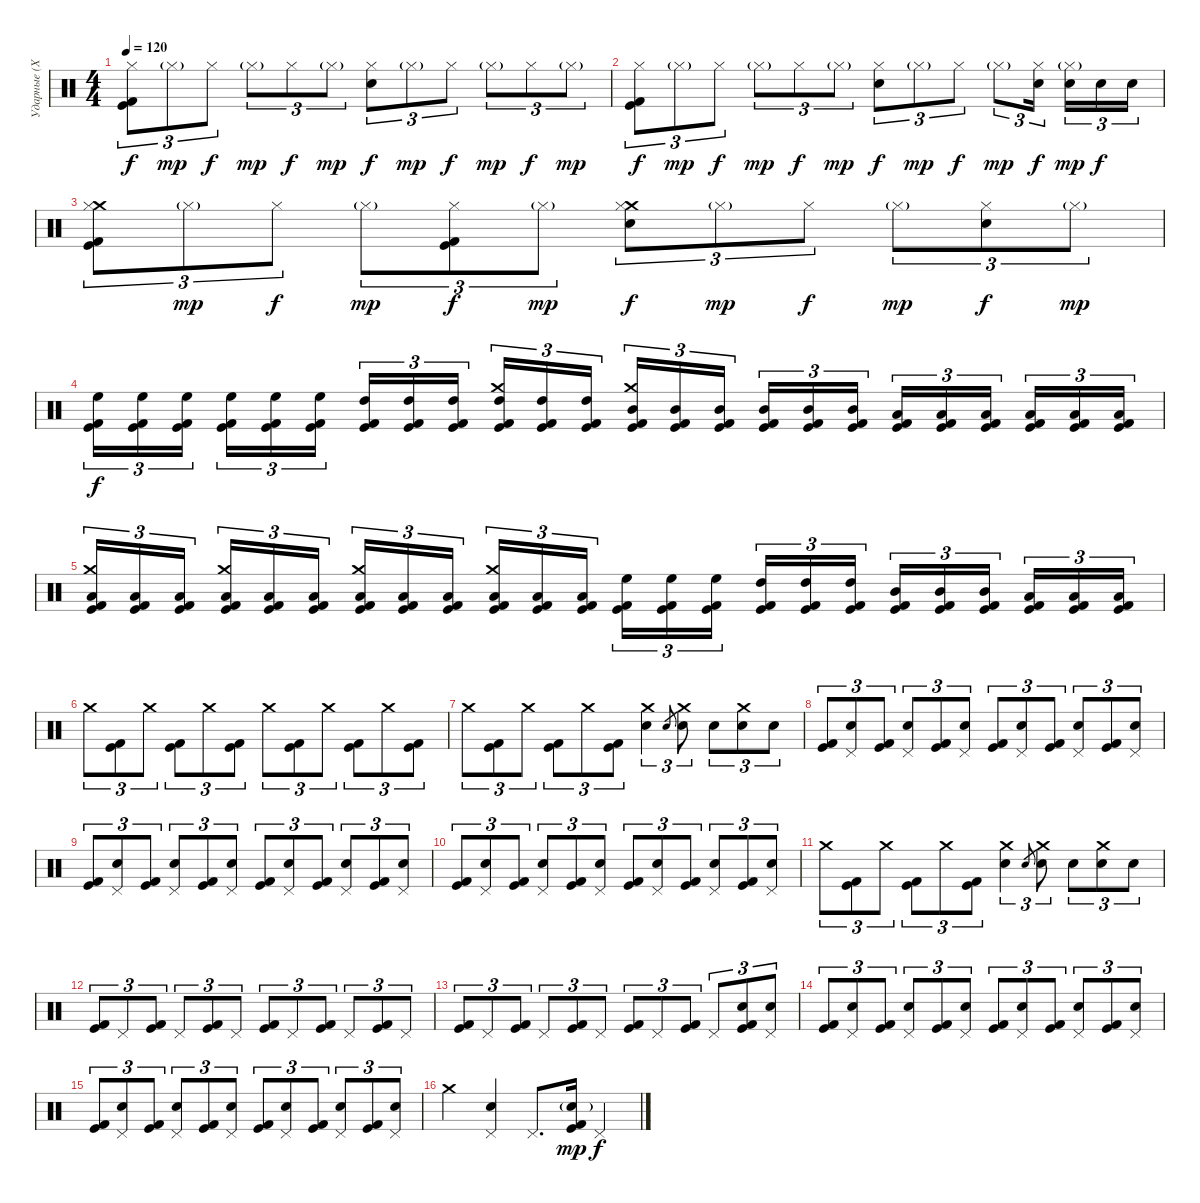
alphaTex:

\track ("Ударные (Хеллхаммер)" "Ударные (Х") {instrument percussion}
\staff {score}
\articulation defaults
\ts (4 4)
\tempo 120
\clef neutral
\ks c
("Hi-Hat (closed)" "Kick (hit) 2" "Kick (hit)").8{tu (3 2) dy f} "Hi-Hat (closed)"{g}.8{tu (3 2) dy mp} "Hi-Hat (closed)".8{tu (3 2) dy f} "Hi-Hat (closed)"{g}.8{tu (3 2) dy mp} "Hi-Hat (closed)".8{tu (3 2) dy f} "Hi-Hat (closed)"{g}.8{tu (3 2) dy mp} ("Electric Snare (hit)" "Hi-Hat (closed)").8{tu (3 2) dy f} "Hi-Hat (closed)"{g}.8{tu (3 2) dy mp} "Hi-Hat (closed)".8{tu (3 2) dy f} "Hi-Hat (closed)"{g}.8{tu (3 2) dy mp} "Hi-Hat (closed)".8{tu (3 2) dy f} "Hi-Hat (closed)"{g}.8{tu (3 2) dy mp} |
("Hi-Hat (closed)" "Kick (hit) 2" "Kick (hit)").8{tu (3 2) dy f} "Hi-Hat (closed)"{g}.8{tu (3 2) dy mp} "Hi-Hat (closed)".8{tu (3 2) dy f} "Hi-Hat (closed)"{g}.8{tu (3 2) dy mp} "Hi-Hat (closed)".8{tu (3 2) dy f} "Hi-Hat (closed)"{g}.8{tu (3 2) dy mp} ("Electric Snare (hit)" "Hi-Hat (closed)").8{tu (3 2) dy f} "Hi-Hat (closed)"{g}.8{tu (3 2) dy mp} "Hi-Hat (closed)".8{tu (3 2) dy f} "Hi-Hat (closed)"{g}.8{tu (3 2) dy mp} ("Electric Snare (hit)" "Hi-Hat (closed)").16{tu (3 2) dy f beam splitsecondary} ("Electric Snare (hit)" "Hi-Hat (closed)"{g}).16{tu (3 2) dy mp} "Electric Snare (hit)".16{tu (3 2) dy f} "Electric Snare (hit)".16{tu (3 2)} |
("Crash medium (hit)" "Hi-Hat (closed)" "Kick (hit) 2" "Kick (hit)").8{tu (3 2)} "Hi-Hat (closed)"{g}.8{tu (3 2) dy mp} "Hi-Hat (closed)".8{tu (3 2) dy f} "Hi-Hat (closed)"{g}.8{tu (3 2) dy mp} ("Hi-Hat (closed)" "Kick (hit) 2" "Kick (hit)").8{tu (3 2) dy f} "Hi-Hat (closed)"{g}.8{tu (3 2) dy mp} ("Crash medium (hit)" "Electric Snare (hit)" "Hi-Hat (closed)").8{tu (3 2) dy f} "Hi-Hat (closed)"{g}.8{tu (3 2) dy mp} "Hi-Hat (closed)".8{tu (3 2) dy f} "Hi-Hat (closed)"{g}.8{tu (3 2) dy mp} ("Electric Snare (hit)" "Hi-Hat (closed)").8{tu (3 2) dy f} "Hi-Hat (closed)"{g}.8{tu (3 2) dy mp} |
("High Floor Tom (hit)" "Kick (hit) 2" "Kick (hit)").16{tu (3 2) dy f} ("High Floor Tom (hit)" "Kick (hit) 2" "Kick (hit)").16{tu (3 2)} ("High Floor Tom (hit)" "Kick (hit) 2" "Kick (hit)").16{tu (3 2) beam splitsecondary} ("High Floor Tom (hit)" "Kick (hit) 2" "Kick (hit)").16{tu (3 2)} ("High Floor Tom (hit)" "Kick (hit) 2" "Kick (hit)").16{tu (3 2)} ("High Floor Tom (hit)" "Kick (hit) 2" "Kick (hit)").16{tu (3 2)} ("High Tom (hit)" "Kick (hit) 2" "Kick (hit)").16{tu (3 2)} ("High Tom (hit)" "Kick (hit) 2" "Kick (hit)").16{tu (3 2)} ("High Tom (hit)" "Kick (hit) 2" "Kick (hit)").16{tu (3 2) beam splitsecondary} ("High Tom (hit)" "Crash medium (hit)" "Kick (hit) 2" "Kick (hit)").16{tu (3 2)} ("High Tom (hit)" "Kick (hit) 2" "Kick (hit)").16{tu (3 2)} ("High Tom (hit)" "Kick (hit) 2" "Kick (hit)").16{tu (3 2)} ("Mid Tom (hit)" "Crash medium (hit)" "Kick (hit) 2" "Kick (hit)").16{tu (3 2)} ("Mid Tom (hit)" "Kick (hit) 2" "Kick (hit)").16{tu (3 2)} ("Mid Tom (hit)" "Kick (hit) 2" "Kick (hit)").16{tu (3 2) beam splitsecondary} ("Mid Tom (hit)" "Kick (hit) 2" "Kick (hit)").16{tu (3 2)} ("Mid Tom (hit)" "Kick (hit) 2" "Kick (hit)").16{tu (3 2)} ("Mid Tom (hit)" "Kick (hit) 2" "Kick (hit)").16{tu (3 2)} ("Low Tom (hit)" "Kick (hit) 2" "Kick (hit)").16{tu (3 2)} ("Low Tom (hit)" "Kick (hit) 2" "Kick (hit)").16{tu (3 2)} ("Low Tom (hit)" "Kick (hit) 2" "Kick (hit)").16{tu (3 2) beam splitsecondary} ("Low Tom (hit)" "Kick (hit) 2" "Kick (hit)").16{tu (3 2)} ("Low Tom (hit)" "Kick (hit) 2" "Kick (hit)").16{tu (3 2)} ("Low Tom (hit)" "Kick (hit) 2" "Kick (hit)").16{tu (3 2)} |
("Low Tom (hit)" "Crash medium (hit)" "Kick (hit) 2" "Kick (hit)").16{tu (3 2)} ("Low Tom (hit)" "Kick (hit) 2" "Kick (hit)").16{tu (3 2)} ("Low Tom (hit)" "Kick (hit) 2" "Kick (hit)").16{tu (3 2) beam splitsecondary} ("Low Tom (hit)" "Crash medium (hit)" "Kick (hit) 2" "Kick (hit)").16{tu (3 2)} ("Low Tom (hit)" "Kick (hit) 2" "Kick (hit)").16{tu (3 2)} ("Low Tom (hit)" "Kick (hit) 2" "Kick (hit)").16{tu (3 2)} ("Low Tom (hit)" "Crash medium (hit)" "Kick (hit) 2" "Kick (hit)").16{tu (3 2)} ("Low Tom (hit)" "Kick (hit) 2" "Kick (hit)").16{tu (3 2)} ("Low Tom (hit)" "Kick (hit) 2" "Kick (hit)").16{tu (3 2) beam splitsecondary} ("Low Tom (hit)" "Crash medium (hit)" "Kick (hit) 2" "Kick (hit)").16{tu (3 2)} ("Low Tom (hit)" "Kick (hit) 2" "Kick (hit)").16{tu (3 2)} ("Low Tom (hit)" "Kick (hit) 2" "Kick (hit)").16{tu (3 2)} ("High Floor Tom (hit)" "Kick (hit) 2" "Kick (hit)").16{tu (3 2)} ("High Floor Tom (hit)" "Kick (hit) 2" "Kick (hit)").16{tu (3 2)} ("High Floor Tom (hit)" "Kick (hit) 2" "Kick (hit)").16{tu (3 2) beam splitsecondary} ("High Tom (hit)" "Kick (hit) 2" "Kick (hit)").16{tu (3 2)} ("High Tom (hit)" "Kick (hit) 2" "Kick (hit)").16{tu (3 2)} ("High Tom (hit)" "Kick (hit) 2" "Kick (hit)").16{tu (3 2)} ("Mid Tom (hit)" "Kick (hit) 2" "Kick (hit)").16{tu (3 2)} ("Mid Tom (hit)" "Kick (hit) 2" "Kick (hit)").16{tu (3 2)} ("Mid Tom (hit)" "Kick (hit) 2" "Kick (hit)").16{tu (3 2) beam splitsecondary} ("Low Tom (hit)" "Kick (hit) 2" "Kick (hit)").16{tu (3 2)} ("Low Tom (hit)" "Kick (hit) 2" "Kick (hit)").16{tu (3 2)} ("Low Tom (hit)" "Kick (hit) 2" "Kick (hit)").16{tu (3 2)} |
"Crash medium (hit)".8{tu (3 2)} ("Kick (hit) 2" "Kick (hit)").8{tu (3 2)} "Crash medium (hit)".8{tu (3 2)} ("Kick (hit) 2" "Kick (hit)").8{tu (3 2)} "Crash medium (hit)".8{tu (3 2)} ("Kick (hit) 2" "Kick (hit)").8{tu (3 2)} "Crash medium (hit)".8{tu (3 2)} ("Kick (hit) 2" "Kick (hit)").8{tu (3 2)} "Crash medium (hit)".8{tu (3 2)} ("Kick (hit) 2" "Kick (hit)").8{tu (3 2)} "Crash medium (hit)".8{tu (3 2)} ("Kick (hit) 2" "Kick (hit)").8{tu (3 2)} |
"Crash medium (hit)".8{tu (3 2)} ("Kick (hit) 2" "Kick (hit)").8{tu (3 2)} "Crash medium (hit)".8{tu (3 2)} ("Kick (hit) 2" "Kick (hit)").8{tu (3 2)} "Crash medium (hit)".8{tu (3 2)} ("Kick (hit) 2" "Kick (hit)").8{tu (3 2)} ("Crash medium (hit)" "Electric Snare (hit)").4{tu (3 2)} "Electric Snare (hit)".8{gr} ("Crash medium (hit)" "Electric Snare (hit)").8{tu (3 2)} "Electric Snare (hit)".8{tu (3 2)} ("Crash medium (hit)" "Electric Snare (hit)").8{tu (3 2)} "Electric Snare (hit)".8{tu (3 2)} |
("Kick (hit) 2" "Kick (hit)").8{tu (3 2)} ("Pedal Hi-Hat (hit)" "Electric Snare (hit)").8{tu (3 2)} ("Kick (hit) 2" "Kick (hit)").8{tu (3 2)} ("Pedal Hi-Hat (hit)" "Electric Snare (hit)").8{tu (3 2)} ("Kick (hit) 2" "Kick (hit)").8{tu (3 2)} ("Pedal Hi-Hat (hit)" "Electric Snare (hit)").8{tu (3 2)} ("Kick (hit) 2" "Kick (hit)").8{tu (3 2)} ("Pedal Hi-Hat (hit)" "Electric Snare (hit)").8{tu (3 2)} ("Kick (hit) 2" "Kick (hit)").8{tu (3 2)} ("Pedal Hi-Hat (hit)" "Electric Snare (hit)").8{tu (3 2)} ("Kick (hit) 2" "Kick (hit)").8{tu (3 2)} ("Pedal Hi-Hat (hit)" "Electric Snare (hit)").8{tu (3 2)} |
("Kick (hit) 2" "Kick (hit)").8{tu (3 2)} ("Pedal Hi-Hat (hit)" "Electric Snare (hit)").8{tu (3 2)} ("Kick (hit) 2" "Kick (hit)").8{tu (3 2)} ("Pedal Hi-Hat (hit)" "Electric Snare (hit)").8{tu (3 2)} ("Kick (hit) 2" "Kick (hit)").8{tu (3 2)} ("Pedal Hi-Hat (hit)" "Electric Snare (hit)").8{tu (3 2)} ("Kick (hit) 2" "Kick (hit)").8{tu (3 2)} ("Pedal Hi-Hat (hit)" "Electric Snare (hit)").8{tu (3 2)} ("Kick (hit) 2" "Kick (hit)").8{tu (3 2)} ("Pedal Hi-Hat (hit)" "Electric Snare (hit)").8{tu (3 2)} ("Kick (hit) 2" "Kick (hit)").8{tu (3 2)} ("Pedal Hi-Hat (hit)" "Electric Snare (hit)").8{tu (3 2)} |
("Kick (hit) 2" "Kick (hit)").8{tu (3 2)} ("Pedal Hi-Hat (hit)" "Electric Snare (hit)").8{tu (3 2)} ("Kick (hit) 2" "Kick (hit)").8{tu (3 2)} ("Pedal Hi-Hat (hit)" "Electric Snare (hit)").8{tu (3 2)} ("Kick (hit) 2" "Kick (hit)").8{tu (3 2)} ("Pedal Hi-Hat (hit)" "Electric Snare (hit)").8{tu (3 2)} ("Kick (hit) 2" "Kick (hit)").8{tu (3 2)} ("Pedal Hi-Hat (hit)" "Electric Snare (hit)").8{tu (3 2)} ("Kick (hit) 2" "Kick (hit)").8{tu (3 2)} ("Pedal Hi-Hat (hit)" "Electric Snare (hit)").8{tu (3 2)} ("Kick (hit) 2" "Kick (hit)").8{tu (3 2)} ("Pedal Hi-Hat (hit)" "Electric Snare (hit)").8{tu (3 2)} |
"Crash medium (hit)".8{tu (3 2)} ("Kick (hit) 2" "Kick (hit)").8{tu (3 2)} "Crash medium (hit)".8{tu (3 2)} ("Kick (hit) 2" "Kick (hit)").8{tu (3 2)} "Crash medium (hit)".8{tu (3 2)} ("Kick (hit) 2" "Kick (hit)").8{tu (3 2)} ("Crash medium (hit)" "Electric Snare (hit)").4{tu (3 2)} "Electric Snare (hit)".8{gr} ("Crash medium (hit)" "Electric Snare (hit)").8{tu (3 2)} "Electric Snare (hit)".8{tu (3 2)} ("Crash medium (hit)" "Electric Snare (hit)").8{tu (3 2)} "Electric Snare (hit)".8{tu (3 2)} |
("Kick (hit) 2" "Kick (hit)").8{tu (3 2)} "Pedal Hi-Hat (hit)".8{tu (3 2)} ("Kick (hit) 2" "Kick (hit)").8{tu (3 2)} "Pedal Hi-Hat (hit)".8{tu (3 2)} ("Kick (hit) 2" "Kick (hit)").8{tu (3 2)} "Pedal Hi-Hat (hit)".8{tu (3 2)} ("Kick (hit) 2" "Kick (hit)").8{tu (3 2)} "Pedal Hi-Hat (hit)".8{tu (3 2)} ("Kick (hit) 2" "Kick (hit)").8{tu (3 2)} "Pedal Hi-Hat (hit)".8{tu (3 2)} ("Kick (hit) 2" "Kick (hit)").8{tu (3 2)} "Pedal Hi-Hat (hit)".8{tu (3 2)} |
("Kick (hit) 2" "Kick (hit)").8{tu (3 2)} "Pedal Hi-Hat (hit)".8{tu (3 2)} ("Kick (hit) 2" "Kick (hit)").8{tu (3 2)} "Pedal Hi-Hat (hit)".8{tu (3 2)} ("Kick (hit) 2" "Kick (hit)").8{tu (3 2)} "Pedal Hi-Hat (hit)".8{tu (3 2)} ("Kick (hit) 2" "Kick (hit)").8{tu (3 2)} "Pedal Hi-Hat (hit)".8{tu (3 2)} ("Kick (hit) 2" "Kick (hit)").8{tu (3 2)} "Pedal Hi-Hat (hit)".8{tu (3 2)} ("Electric Snare (hit)" "Kick (hit) 2" "Kick (hit)").8{tu (3 2)} ("Pedal Hi-Hat (hit)" "Electric Snare (hit)").8{tu (3 2)} |
("Kick (hit) 2" "Kick (hit)").8{tu (3 2)} ("Pedal Hi-Hat (hit)" "Electric Snare (hit)").8{tu (3 2)} ("Kick (hit) 2" "Kick (hit)").8{tu (3 2)} ("Pedal Hi-Hat (hit)" "Electric Snare (hit)").8{tu (3 2)} ("Kick (hit) 2" "Kick (hit)").8{tu (3 2)} ("Pedal Hi-Hat (hit)" "Electric Snare (hit)").8{tu (3 2)} ("Kick (hit) 2" "Kick (hit)").8{tu (3 2)} ("Pedal Hi-Hat (hit)" "Electric Snare (hit)").8{tu (3 2)} ("Kick (hit) 2" "Kick (hit)").8{tu (3 2)} ("Pedal Hi-Hat (hit)" "Electric Snare (hit)").8{tu (3 2)} ("Kick (hit) 2" "Kick (hit)").8{tu (3 2)} ("Pedal Hi-Hat (hit)" "Electric Snare (hit)").8{tu (3 2)} |
("Kick (hit) 2" "Kick (hit)").8{tu (3 2)} ("Pedal Hi-Hat (hit)" "Electric Snare (hit)").8{tu (3 2)} ("Kick (hit) 2" "Kick (hit)").8{tu (3 2)} ("Pedal Hi-Hat (hit)" "Electric Snare (hit)").8{tu (3 2)} ("Kick (hit) 2" "Kick (hit)").8{tu (3 2)} ("Pedal Hi-Hat (hit)" "Electric Snare (hit)").8{tu (3 2)} ("Kick (hit) 2" "Kick (hit)").8{tu (3 2)} ("Pedal Hi-Hat (hit)" "Electric Snare (hit)").8{tu (3 2)} ("Kick (hit) 2" "Kick (hit)").8{tu (3 2)} ("Pedal Hi-Hat (hit)" "Electric Snare (hit)").8{tu (3 2)} ("Kick (hit) 2" "Kick (hit)").8{tu (3 2)} ("Pedal Hi-Hat (hit)" "Electric Snare (hit)").8{tu (3 2)} |
"Crash medium (hit)".4 ("Pedal Hi-Hat (hit)" "Electric Snare (hit)").4 "Pedal Hi-Hat (hit)".8{d} ("Electric Snare (hit)"{g} "Kick (hit) 2" "Kick (hit)").16{dy mp} "Pedal Hi-Hat (hit)".4{dy f}
